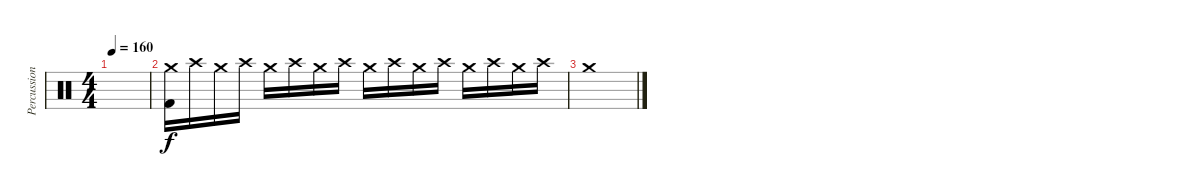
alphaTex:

\track ("Percussion" "Percussion") {instrument percussion}
\staff {score}
\articulation defaults
\ts (4 4)
\tempo 160
\clef neutral
\ks c
|
("Crash medium (hit)" "Kick (hit) 2").16 "Crash high (hit)".16 "Crash medium (hit)".16 "Crash high (hit)".16 "Crash medium (hit)".16 "Crash high (hit)".16 "Crash medium (hit)".16 "Crash high (hit)".16 "Crash medium (hit)".16 "Crash high (hit)".16 "Crash medium (hit)".16 "Crash high (hit)".16 "Crash medium (hit)".16 "Crash high (hit)".16 "Crash medium (hit)".16 "Crash high (hit)".16 |
"Crash medium (hit)".1
